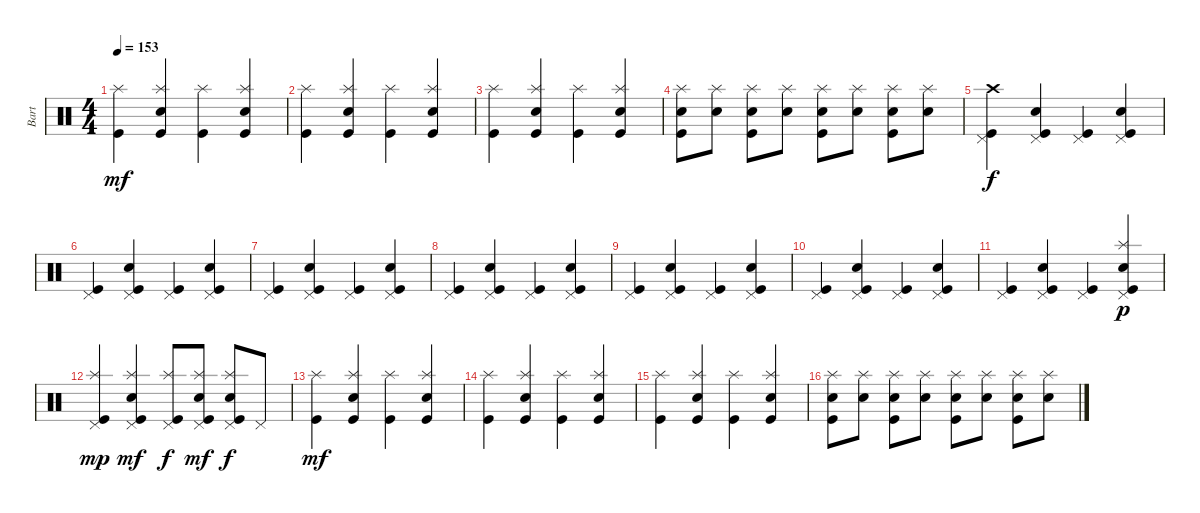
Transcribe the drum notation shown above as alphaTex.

\track ("Bart" "Bart") {instrument percussion}
\staff {score}
\articulation defaults
\ts (4 4)
\tempo 153
\clef neutral
\ks c
("Kick (hit)" "Splash (hit)").4{dy mf} ("Kick (hit)" "Electric Snare (hit)" "Splash (hit)").4 ("Kick (hit)" "Splash (hit)").4 ("Kick (hit)" "Electric Snare (hit)" "Splash (hit)").4 |
("Kick (hit)" "Splash (hit)").4 ("Kick (hit)" "Electric Snare (hit)" "Splash (hit)").4 ("Kick (hit)" "Splash (hit)").4 ("Kick (hit)" "Electric Snare (hit)" "Splash (hit)").4 |
("Kick (hit)" "Splash (hit)").4 ("Kick (hit)" "Electric Snare (hit)" "Splash (hit)").4 ("Kick (hit)" "Splash (hit)").4 ("Kick (hit)" "Electric Snare (hit)" "Splash (hit)").4 |
("Kick (hit)" "Electric Snare (hit)" "Splash (hit)").8 ("Electric Snare (hit)" "Splash (hit)").8 ("Kick (hit)" "Electric Snare (hit)" "Splash (hit)").8 ("Electric Snare (hit)" "Splash (hit)").8 ("Kick (hit)" "Electric Snare (hit)" "Splash (hit)").8 ("Electric Snare (hit)" "Splash (hit)").8 ("Kick (hit)" "Electric Snare (hit)" "Splash (hit)").8 ("Electric Snare (hit)" "Splash (hit)").8 |
("Kick (hit)" "Pedal Hi-Hat (hit)" "Crash high (hit)").4{dy f} ("Kick (hit)" "Electric Snare (hit)" "Pedal Hi-Hat (hit)").4 ("Kick (hit)" "Pedal Hi-Hat (hit)").4 ("Kick (hit)" "Electric Snare (hit)" "Pedal Hi-Hat (hit)").4 |
("Kick (hit)" "Pedal Hi-Hat (hit)").4 ("Kick (hit)" "Electric Snare (hit)" "Pedal Hi-Hat (hit)").4 ("Kick (hit)" "Pedal Hi-Hat (hit)").4 ("Kick (hit)" "Electric Snare (hit)" "Pedal Hi-Hat (hit)").4 |
("Kick (hit)" "Pedal Hi-Hat (hit)").4 ("Kick (hit)" "Electric Snare (hit)" "Pedal Hi-Hat (hit)").4 ("Kick (hit)" "Pedal Hi-Hat (hit)").4 ("Kick (hit)" "Electric Snare (hit)" "Pedal Hi-Hat (hit)").4 |
("Kick (hit)" "Pedal Hi-Hat (hit)").4 ("Kick (hit)" "Electric Snare (hit)" "Pedal Hi-Hat (hit)").4 ("Kick (hit)" "Pedal Hi-Hat (hit)").4 ("Kick (hit)" "Electric Snare (hit)" "Pedal Hi-Hat (hit)").4 |
("Kick (hit)" "Pedal Hi-Hat (hit)").4 ("Kick (hit)" "Electric Snare (hit)" "Pedal Hi-Hat (hit)").4 ("Kick (hit)" "Pedal Hi-Hat (hit)").4 ("Kick (hit)" "Electric Snare (hit)" "Pedal Hi-Hat (hit)").4 |
("Kick (hit)" "Pedal Hi-Hat (hit)").4 ("Kick (hit)" "Electric Snare (hit)" "Pedal Hi-Hat (hit)").4 ("Kick (hit)" "Pedal Hi-Hat (hit)").4 ("Kick (hit)" "Electric Snare (hit)" "Pedal Hi-Hat (hit)").4 |
("Kick (hit)" "Pedal Hi-Hat (hit)").4 ("Kick (hit)" "Electric Snare (hit)" "Pedal Hi-Hat (hit)").4 ("Kick (hit)" "Pedal Hi-Hat (hit)").4 ("Kick (hit)" "Electric Snare (hit)" "Pedal Hi-Hat (hit)" "Splash (hit)").4{dy p} |
("Kick (hit)" "Pedal Hi-Hat (hit)" "Splash (hit)").4{dy mp} ("Kick (hit)" "Electric Snare (hit)" "Pedal Hi-Hat (hit)" "Splash (hit)").4{dy mf} ("Kick (hit)" "Pedal Hi-Hat (hit)" "Splash (hit)").8{dy f} ("Kick (hit)" "Electric Snare (hit)" "Pedal Hi-Hat (hit)" "Splash (hit)").8{dy mf} ("Kick (hit)" "Electric Snare (hit)" "Pedal Hi-Hat (hit)" "Splash (hit)").8{dy f} "Pedal Hi-Hat (hit)".8 |
("Kick (hit)" "Splash (hit)").4{dy mf} ("Kick (hit)" "Electric Snare (hit)" "Splash (hit)").4 ("Kick (hit)" "Splash (hit)").4 ("Kick (hit)" "Electric Snare (hit)" "Splash (hit)").4 |
("Kick (hit)" "Splash (hit)").4 ("Kick (hit)" "Electric Snare (hit)" "Splash (hit)").4 ("Kick (hit)" "Splash (hit)").4 ("Kick (hit)" "Electric Snare (hit)" "Splash (hit)").4 |
("Kick (hit)" "Splash (hit)").4 ("Kick (hit)" "Electric Snare (hit)" "Splash (hit)").4 ("Kick (hit)" "Splash (hit)").4 ("Kick (hit)" "Electric Snare (hit)" "Splash (hit)").4 |
("Kick (hit)" "Electric Snare (hit)" "Splash (hit)").8 ("Electric Snare (hit)" "Splash (hit)").8 ("Kick (hit)" "Electric Snare (hit)" "Splash (hit)").8 ("Electric Snare (hit)" "Splash (hit)").8 ("Kick (hit)" "Electric Snare (hit)" "Splash (hit)").8 ("Electric Snare (hit)" "Splash (hit)").8 ("Kick (hit)" "Electric Snare (hit)" "Splash (hit)").8 ("Electric Snare (hit)" "Splash (hit)").8
